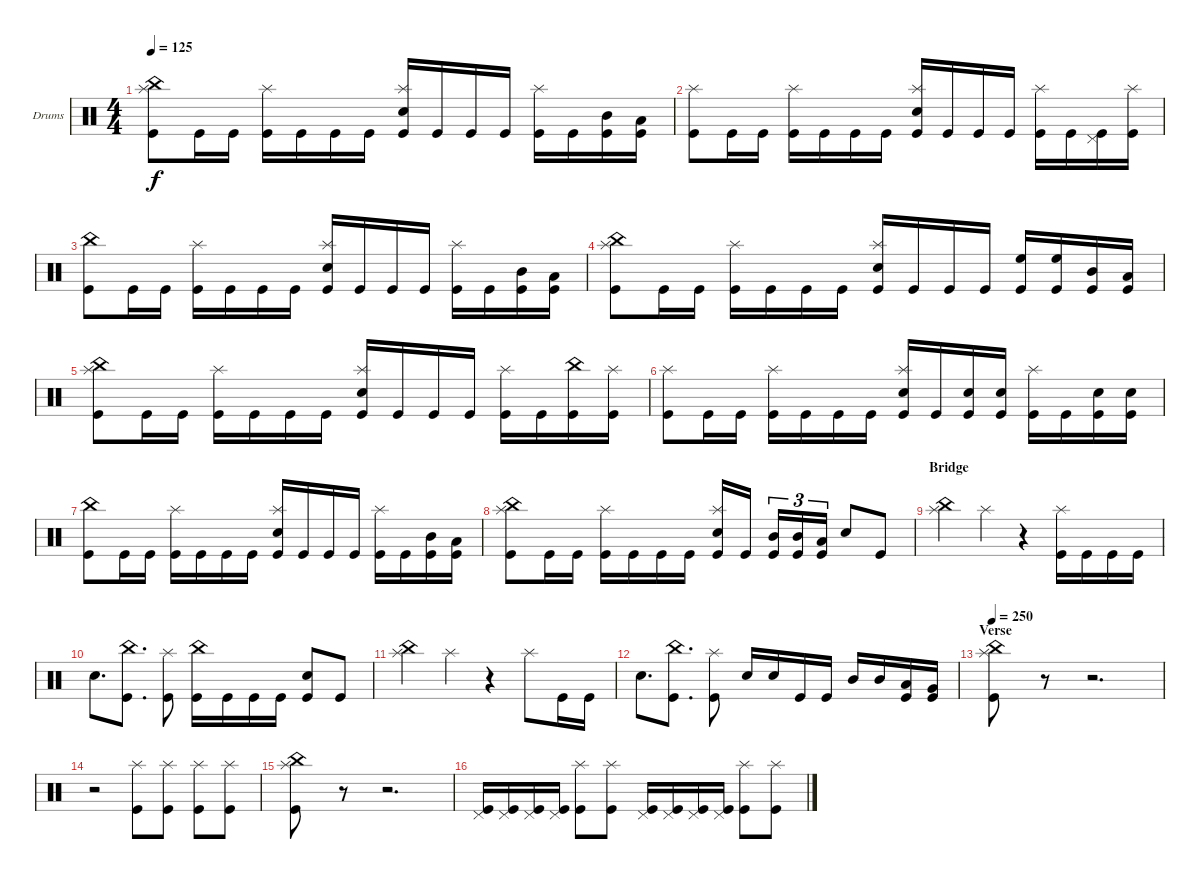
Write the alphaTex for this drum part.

\defaultSystemsLayout 4
\bracketExtendMode groupsimilarinstruments
\firstSystemTrackNameOrientation horizontal
\otherSystemsTrackNameOrientation horizontal
\track ("Drumkit" "Drums") {instrument percussion}
\staff {score}
\articulation defaults
\ts (4 4)
\tempo 125
\clef neutral
\ks c
("Kick (hit)" "China (hit)" "Splash (hit)").8{dy f} "Kick (hit)".16 "Kick (hit)".16 ("Kick (hit)" "Splash (hit)").16 "Kick (hit)".16 "Kick (hit)".16 "Kick (hit)".16 ("Kick (hit)" "Splash (hit)" "Snare (hit) 2").16 "Kick (hit)".16 "Kick (hit)".16 "Kick (hit)".16 ("Kick (hit)" "Splash (hit)").16 "Kick (hit)".16 ("Kick (hit)" "Mid Tom (hit)").16 ("Kick (hit)" "Low Tom (hit)").16 |
("Kick (hit)" "Splash (hit)").8 "Kick (hit)".16 "Kick (hit)".16 ("Kick (hit)" "Splash (hit)").16 "Kick (hit)".16 "Kick (hit)".16 "Kick (hit)".16 ("Kick (hit)" "Splash (hit)" "Snare (hit) 2").16 "Kick (hit)".16 "Kick (hit)".16 "Kick (hit)".16 ("Kick (hit)" "Splash (hit)").16 "Kick (hit)".16 ("Kick (hit)" "Pedal Hi-Hat (hit)").16 ("Kick (hit)" "Splash (hit)").16 |
("Kick (hit)" "China (hit)").8 "Kick (hit)".16 "Kick (hit)".16 ("Kick (hit)" "Splash (hit)").16 "Kick (hit)".16 "Kick (hit)".16 "Kick (hit)".16 ("Kick (hit)" "Snare (hit) 2" "Splash (hit)").16 "Kick (hit)".16 "Kick (hit)".16 "Kick (hit)".16 ("Kick (hit)" "Splash (hit)").16 "Kick (hit)".16 ("Kick (hit)" "Mid Tom (hit)").16 ("Kick (hit)" "Low Tom (hit)").16 |
\scale
0.477367 ("Kick (hit)" "China (hit)" "Splash (hit)").8 "Kick (hit)".16 "Kick (hit)".16 ("Kick (hit)" "Splash (hit)").16 "Kick (hit)".16 "Kick (hit)".16 "Kick (hit)".16 ("Kick (hit)" "Splash (hit)" "Snare (hit) 2").16 "Kick (hit)".16 "Kick (hit)".16 "Kick (hit)".16 ("Kick (hit)" "High Floor Tom (hit)").16 ("Kick (hit)" "High Floor Tom (hit)").16 ("Kick (hit)" "Mid Tom (hit)").16 ("Kick (hit)" "Low Tom (hit)").16 |
\scale
0.522828 ("Kick (hit)" "China (hit)" "Splash (hit)").8 "Kick (hit)".16 "Kick (hit)".16 ("Kick (hit)" "Splash (hit)").16 "Kick (hit)".16 "Kick (hit)".16 "Kick (hit)".16 ("Kick (hit)" "Splash (hit)" "Snare (hit) 2").16 "Kick (hit)".16 "Kick (hit)".16 "Kick (hit)".16 ("Kick (hit)" "Splash (hit)").16 "Kick (hit)".16 ("Kick (hit)" "China (hit)").16 ("Kick (hit)" "Splash (hit)").16 |
\scale
0.504638 ("Kick (hit)" "Splash (hit)").8 "Kick (hit)".16 "Kick (hit)".16 ("Kick (hit)" "Splash (hit)").16 "Kick (hit)".16 "Kick (hit)".16 "Kick (hit)".16 ("Kick (hit)" "Splash (hit)" "Snare (hit) 2").16 "Kick (hit)".16 ("Kick (hit)" "Snare (hit) 2").16 ("Kick (hit)" "Snare (hit) 2").16 ("Kick (hit)" "Splash (hit)").16 "Kick (hit)".16 ("Kick (hit)" "Snare (hit) 2").16 ("Kick (hit)" "Snare (hit) 2").16 |
\scale
0.494392 ("Kick (hit)" "China (hit)").8 "Kick (hit)".16 "Kick (hit)".16 ("Kick (hit)" "Splash (hit)").16 "Kick (hit)".16 "Kick (hit)".16 "Kick (hit)".16 ("Kick (hit)" "Snare (hit) 2" "Splash (hit)").16 "Kick (hit)".16 "Kick (hit)".16 "Kick (hit)".16 ("Kick (hit)" "Splash (hit)").16 "Kick (hit)".16 ("Kick (hit)" "Mid Tom (hit)").16 ("Kick (hit)" "Low Tom (hit)").16 |
("Kick (hit)" "China (hit)" "Splash (hit)").8 "Kick (hit)".16 "Kick (hit)".16 ("Kick (hit)" "Splash (hit)").16 "Kick (hit)".16 "Kick (hit)".16 "Kick (hit)".16 ("Kick (hit)" "Splash (hit)" "Snare (hit) 2").16 "Kick (hit)".16 ("Kick (hit)" "Mid Tom (hit)").16{tu (3 2)} ("Kick (hit)" "Mid Tom (hit)").16{tu (3 2)} ("Kick (hit)" "Low Tom (hit)").16{tu (3 2)} "Snare (hit) 2".8 "Kick (hit)".8 |
\section ("" "Bridge")
("Splash (hit)" "China (hit)").4 "Splash (hit)".4 r.4 ("Splash (hit)" "Kick (hit)").16 "Kick (hit)".16 "Kick (hit)".16 "Kick (hit)".16 |
"Snare (hit) 2".8{d} ("China (hit)" "Kick (hit)").8{d} ("Kick (hit)" "Splash (hit)").8 ("China (hit)" "Kick (hit)").16 "Kick (hit)".16 "Kick (hit)".16 "Kick (hit)".16 ("Kick (hit)" "Snare (hit) 2").8 "Kick (hit)".8 |
("Splash (hit)" "China (hit)").4 "Splash (hit)".4 r.4 "Splash (hit)".8 "Kick (hit)".16 "Kick (hit)".16 |
"Snare (hit) 2".8{d} ("Kick (hit)" "China (hit)").8{d} ("Splash (hit)" "Kick (hit)").8 "Snare (hit) 2".16 "Snare (hit) 2".16 "Kick (hit)".16 "Kick (hit)".16 "Mid Tom (hit)".16 "Mid Tom (hit)".16 ("Kick (hit)" "Low Tom (hit)").16 ("Kick (hit)" "Very Low Tom (hit)").16 |
\section ("" "Verse")
\tempo 250
("Kick (hit)" "Splash (hit)" "China (hit)").8 r.8 r.2{d} |
r.2 ("Kick (hit)" "Splash (hit)").8 ("Kick (hit)" "Splash (hit)").8 ("Kick (hit)" "Splash (hit)").8 ("Kick (hit)" "Splash (hit)").8 |
("Kick (hit)" "Splash (hit)" "China (hit)").8 r.8 r.2{d} |
("Pedal Hi-Hat (hit)" "Kick (hit)").16 ("Pedal Hi-Hat (hit)" "Kick (hit)").16 ("Kick (hit)" "Pedal Hi-Hat (hit)").16 ("Pedal Hi-Hat (hit)" "Kick (hit)").16 ("Splash (hit)" "Kick (hit)").8 ("Splash (hit)" "Kick (hit)").8 ("Pedal Hi-Hat (hit)" "Kick (hit)").16 ("Pedal Hi-Hat (hit)" "Kick (hit)").16 ("Kick (hit)" "Pedal Hi-Hat (hit)").16 ("Pedal Hi-Hat (hit)" "Kick (hit)").16 ("Splash (hit)" "Kick (hit)").8 ("Splash (hit)" "Kick (hit)").8
